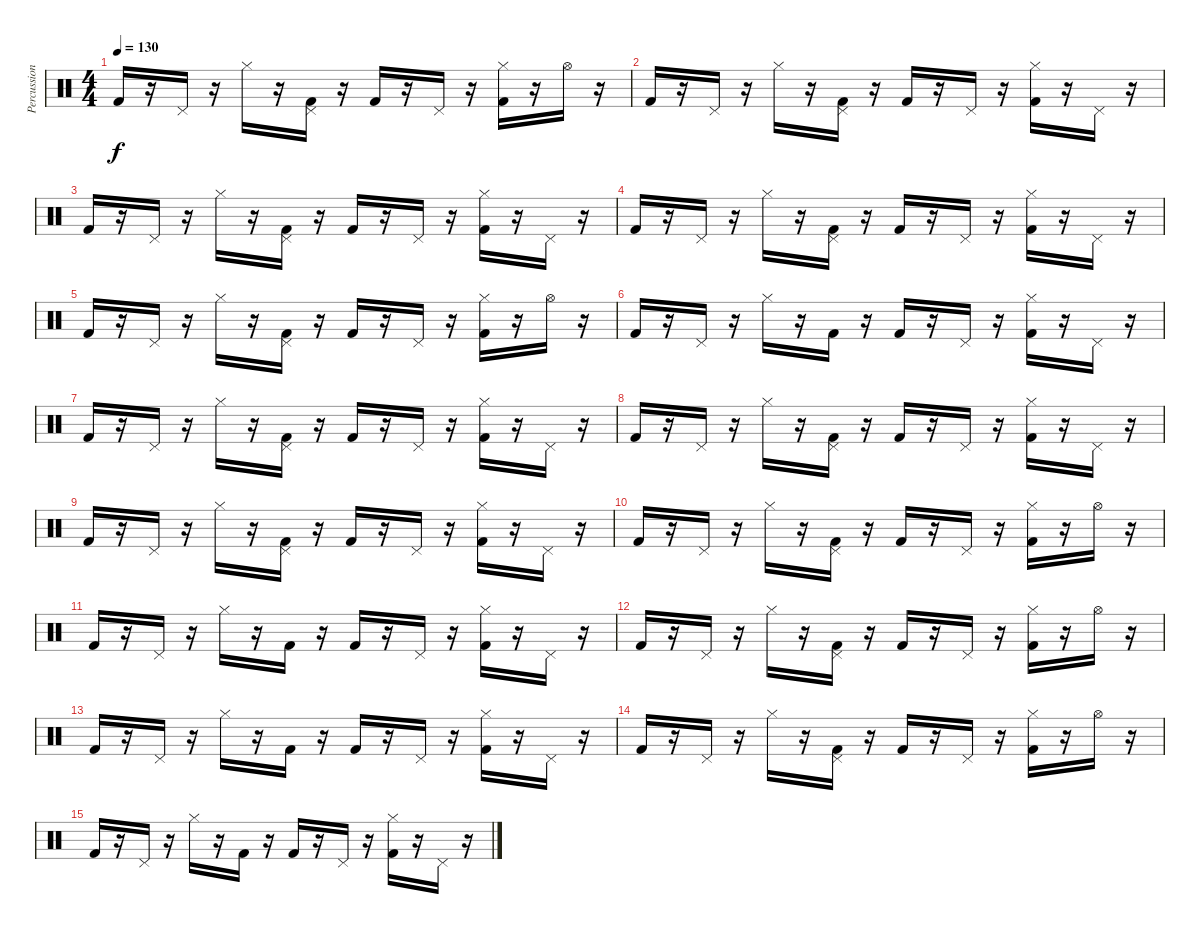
\track ("Percussion" "Percussion") {instrument percussion}
\staff {score}
\articulation defaults
\ts (4 4)
\tempo 130
\clef neutral
\ks c "Kick (hit) 2".16{dy f}
r.16 "Pedal Hi-Hat (hit)".16 r.16 "Hi-Hat (closed)".16 r.16 ("Kick (hit) 2" "Pedal Hi-Hat (hit)").16 r.16 "Kick (hit) 2".16 r.16 "Pedal Hi-Hat (hit)".16 r.16 ("Kick (hit) 2" "Hi-Hat (closed)").16 r.16 "Hi-Hat (open)".16 r.16 |
"Kick (hit) 2".16 r.16 "Pedal Hi-Hat (hit)".16 r.16 "Hi-Hat (closed)".16 r.16 ("Kick (hit) 2" "Pedal Hi-Hat (hit)").16 r.16 "Kick (hit) 2".16 r.16 "Pedal Hi-Hat (hit)".16 r.16 ("Kick (hit) 2" "Hi-Hat (closed)").16 r.16 "Pedal Hi-Hat (hit)".16 r.16 |
"Kick (hit) 2".16 r.16 "Pedal Hi-Hat (hit)".16 r.16 "Hi-Hat (closed)".16 r.16 ("Kick (hit) 2" "Pedal Hi-Hat (hit)").16 r.16 "Kick (hit) 2".16 r.16 "Pedal Hi-Hat (hit)".16 r.16 ("Kick (hit) 2" "Hi-Hat (closed)").16 r.16 "Pedal Hi-Hat (hit)".16 r.16 |
"Kick (hit) 2".16 r.16 "Pedal Hi-Hat (hit)".16 r.16 "Hi-Hat (closed)".16 r.16 ("Kick (hit) 2" "Pedal Hi-Hat (hit)").16 r.16 "Kick (hit) 2".16 r.16 "Pedal Hi-Hat (hit)".16 r.16 ("Kick (hit) 2" "Hi-Hat (closed)").16 r.16 "Pedal Hi-Hat (hit)".16 r.16 |
"Kick (hit) 2".16 r.16 "Pedal Hi-Hat (hit)".16 r.16 "Hi-Hat (closed)".16 r.16 ("Kick (hit) 2" "Pedal Hi-Hat (hit)").16 r.16 "Kick (hit) 2".16 r.16 "Pedal Hi-Hat (hit)".16 r.16 ("Kick (hit) 2" "Hi-Hat (closed)").16 r.16 "Hi-Hat (open)".16 r.16 |
"Kick (hit) 2".16 r.16 "Pedal Hi-Hat (hit)".16 r.16 "Hi-Hat (closed)".16 r.16 "Kick (hit) 2".16 r.16 "Kick (hit) 2".16 r.16 "Pedal Hi-Hat (hit)".16 r.16 ("Kick (hit) 2" "Hi-Hat (closed)").16 r.16 "Pedal Hi-Hat (hit)".16 r.16 |
"Kick (hit) 2".16 r.16 "Pedal Hi-Hat (hit)".16 r.16 "Hi-Hat (closed)".16 r.16 ("Kick (hit) 2" "Pedal Hi-Hat (hit)").16 r.16 "Kick (hit) 2".16 r.16 "Pedal Hi-Hat (hit)".16 r.16 ("Kick (hit) 2" "Hi-Hat (closed)").16 r.16 "Pedal Hi-Hat (hit)".16 r.16 |
"Kick (hit) 2".16 r.16 "Pedal Hi-Hat (hit)".16 r.16 "Hi-Hat (closed)".16 r.16 ("Kick (hit) 2" "Pedal Hi-Hat (hit)").16 r.16 "Kick (hit) 2".16 r.16 "Pedal Hi-Hat (hit)".16 r.16 ("Kick (hit) 2" "Hi-Hat (closed)").16 r.16 "Pedal Hi-Hat (hit)".16 r.16 |
"Kick (hit) 2".16 r.16 "Pedal Hi-Hat (hit)".16 r.16 "Hi-Hat (closed)".16 r.16 ("Kick (hit) 2" "Pedal Hi-Hat (hit)").16 r.16 "Kick (hit) 2".16 r.16 "Pedal Hi-Hat (hit)".16 r.16 ("Kick (hit) 2" "Hi-Hat (closed)").16 r.16 "Pedal Hi-Hat (hit)".16 r.16 |
"Kick (hit) 2".16 r.16 "Pedal Hi-Hat (hit)".16 r.16 "Hi-Hat (closed)".16 r.16 ("Kick (hit) 2" "Pedal Hi-Hat (hit)").16 r.16 "Kick (hit) 2".16 r.16 "Pedal Hi-Hat (hit)".16 r.16 ("Kick (hit) 2" "Hi-Hat (closed)").16 r.16 "Hi-Hat (open)".16 r.16 |
"Kick (hit) 2".16 r.16 "Pedal Hi-Hat (hit)".16 r.16 "Hi-Hat (closed)".16 r.16 "Kick (hit) 2".16 r.16 "Kick (hit) 2".16 r.16 "Pedal Hi-Hat (hit)".16 r.16 ("Kick (hit) 2" "Hi-Hat (closed)").16 r.16 "Pedal Hi-Hat (hit)".16 r.16 |
"Kick (hit) 2".16 r.16 "Pedal Hi-Hat (hit)".16 r.16 "Hi-Hat (closed)".16 r.16 ("Kick (hit) 2" "Pedal Hi-Hat (hit)").16 r.16 "Kick (hit) 2".16 r.16 "Pedal Hi-Hat (hit)".16 r.16 ("Kick (hit) 2" "Hi-Hat (closed)").16 r.16 "Hi-Hat (open)".16 r.16 |
"Kick (hit) 2".16 r.16 "Pedal Hi-Hat (hit)".16 r.16 "Hi-Hat (closed)".16 r.16 "Kick (hit) 2".16 r.16 "Kick (hit) 2".16 r.16 "Pedal Hi-Hat (hit)".16 r.16 ("Kick (hit) 2" "Hi-Hat (closed)").16 r.16 "Pedal Hi-Hat (hit)".16 r.16 |
"Kick (hit) 2".16 r.16 "Pedal Hi-Hat (hit)".16 r.16 "Hi-Hat (closed)".16 r.16 ("Kick (hit) 2" "Pedal Hi-Hat (hit)").16 r.16 "Kick (hit) 2".16 r.16 "Pedal Hi-Hat (hit)".16 r.16 ("Kick (hit) 2" "Hi-Hat (closed)").16 r.16 "Hi-Hat (open)".16 r.16 |
"Kick (hit) 2".16 r.16 "Pedal Hi-Hat (hit)".16 r.16 "Hi-Hat (closed)".16 r.16 "Kick (hit) 2".16 r.16 "Kick (hit) 2".16 r.16 "Pedal Hi-Hat (hit)".16 r.16 ("Kick (hit) 2" "Hi-Hat (closed)").16 r.16 "Pedal Hi-Hat (hit)".16 r.16
